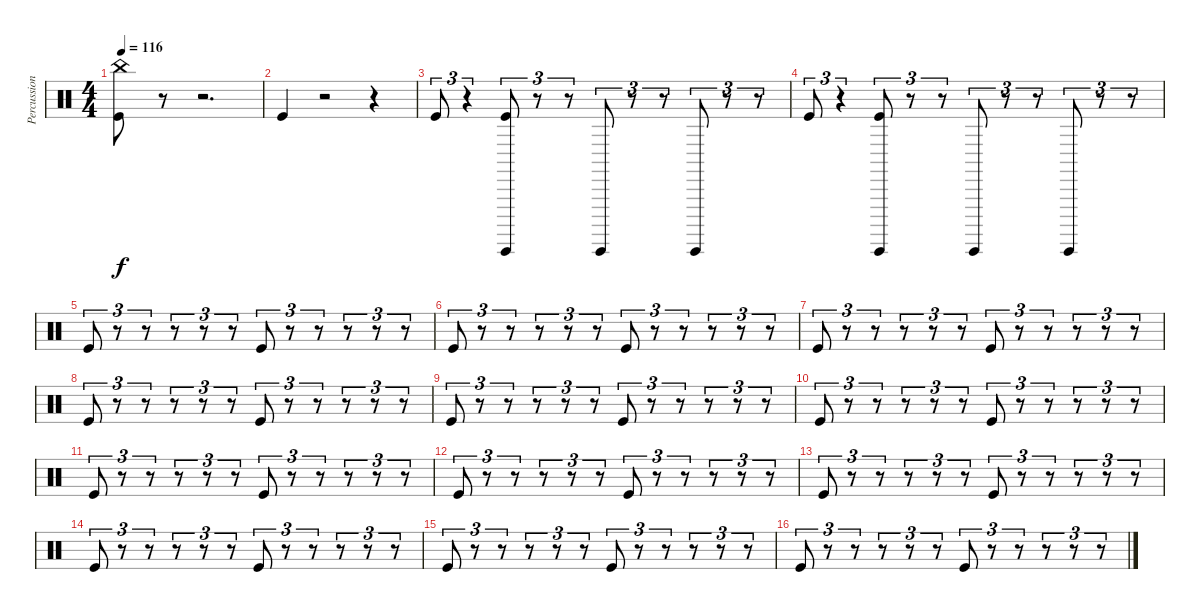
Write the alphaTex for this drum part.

\track ("Percussions" "Percussion") {instrument percussion}
\staff {score}
\articulation defaults
\ts (4 4)
\tempo 116
\clef neutral
\ks c
("China (hit)" "Kick (hit)").8{dy f} r.8 r.2{d} |
"Kick (hit)".4 r.2 r.4 |
"Kick (hit)".8{tu (3 2)} r.4{tu (3 2)} ("Guiro (hit)" "Kick (hit)").8{tu (3 2)} r.8{tu (3 2)} r.8{tu (3 2)} "Guiro (hit)".8{tu (3 2)} r.8{tu (3 2)} r.8{tu (3 2)} "Guiro (hit)".8{tu (3 2)} r.8{tu (3 2)} r.8{tu (3 2)} |
"Kick (hit)".8{tu (3 2)} r.4{tu (3 2)} ("Guiro (hit)" "Kick (hit)").8{tu (3 2)} r.8{tu (3 2)} r.8{tu (3 2)} "Guiro (hit)".8{tu (3 2)} r.8{tu (3 2)} r.8{tu (3 2)} "Guiro (hit)".8{tu (3 2)} r.8{tu (3 2)} r.8{tu (3 2)} |
"Kick (hit)".8{tu (3 2)} r.8{tu (3 2)} r.8{tu (3 2)} r.8{tu (3 2)} r.8{tu (3 2)} r.8{tu (3 2)} "Kick (hit)".8{tu (3 2)} r.8{tu (3 2)} r.8{tu (3 2)} r.8{tu (3 2)} r.8{tu (3 2)} r.8{tu (3 2)} |
"Kick (hit)".8{tu (3 2)} r.8{tu (3 2)} r.8{tu (3 2)} r.8{tu (3 2)} r.8{tu (3 2)} r.8{tu (3 2)} "Kick (hit)".8{tu (3 2)} r.8{tu (3 2)} r.8{tu (3 2)} r.8{tu (3 2)} r.8{tu (3 2)} r.8{tu (3 2)} |
"Kick (hit)".8{tu (3 2)} r.8{tu (3 2)} r.8{tu (3 2)} r.8{tu (3 2)} r.8{tu (3 2)} r.8{tu (3 2)} "Kick (hit)".8{tu (3 2)} r.8{tu (3 2)} r.8{tu (3 2)} r.8{tu (3 2)} r.8{tu (3 2)} r.8{tu (3 2)} |
"Kick (hit)".8{tu (3 2)} r.8{tu (3 2)} r.8{tu (3 2)} r.8{tu (3 2)} r.8{tu (3 2)} r.8{tu (3 2)} "Kick (hit)".8{tu (3 2)} r.8{tu (3 2)} r.8{tu (3 2)} r.8{tu (3 2)} r.8{tu (3 2)} r.8{tu (3 2)} |
"Kick (hit)".8{tu (3 2)} r.8{tu (3 2)} r.8{tu (3 2)} r.8{tu (3 2)} r.8{tu (3 2)} r.8{tu (3 2)} "Kick (hit)".8{tu (3 2)} r.8{tu (3 2)} r.8{tu (3 2)} r.8{tu (3 2)} r.8{tu (3 2)} r.8{tu (3 2)} |
"Kick (hit)".8{tu (3 2)} r.8{tu (3 2)} r.8{tu (3 2)} r.8{tu (3 2)} r.8{tu (3 2)} r.8{tu (3 2)} "Kick (hit)".8{tu (3 2)} r.8{tu (3 2)} r.8{tu (3 2)} r.8{tu (3 2)} r.8{tu (3 2)} r.8{tu (3 2)} |
"Kick (hit)".8{tu (3 2)} r.8{tu (3 2)} r.8{tu (3 2)} r.8{tu (3 2)} r.8{tu (3 2)} r.8{tu (3 2)} "Kick (hit)".8{tu (3 2)} r.8{tu (3 2)} r.8{tu (3 2)} r.8{tu (3 2)} r.8{tu (3 2)} r.8{tu (3 2)} |
"Kick (hit)".8{tu (3 2)} r.8{tu (3 2)} r.8{tu (3 2)} r.8{tu (3 2)} r.8{tu (3 2)} r.8{tu (3 2)} "Kick (hit)".8{tu (3 2)} r.8{tu (3 2)} r.8{tu (3 2)} r.8{tu (3 2)} r.8{tu (3 2)} r.8{tu (3 2)} |
"Kick (hit)".8{tu (3 2)} r.8{tu (3 2)} r.8{tu (3 2)} r.8{tu (3 2)} r.8{tu (3 2)} r.8{tu (3 2)} "Kick (hit)".8{tu (3 2)} r.8{tu (3 2)} r.8{tu (3 2)} r.8{tu (3 2)} r.8{tu (3 2)} r.8{tu (3 2)} |
"Kick (hit)".8{tu (3 2)} r.8{tu (3 2)} r.8{tu (3 2)} r.8{tu (3 2)} r.8{tu (3 2)} r.8{tu (3 2)} "Kick (hit)".8{tu (3 2)} r.8{tu (3 2)} r.8{tu (3 2)} r.8{tu (3 2)} r.8{tu (3 2)} r.8{tu (3 2)} |
"Kick (hit)".8{tu (3 2)} r.8{tu (3 2)} r.8{tu (3 2)} r.8{tu (3 2)} r.8{tu (3 2)} r.8{tu (3 2)} "Kick (hit)".8{tu (3 2)} r.8{tu (3 2)} r.8{tu (3 2)} r.8{tu (3 2)} r.8{tu (3 2)} r.8{tu (3 2)} |
"Kick (hit)".8{tu (3 2)} r.8{tu (3 2)} r.8{tu (3 2)} r.8{tu (3 2)} r.8{tu (3 2)} r.8{tu (3 2)} "Kick (hit)".8{tu (3 2)} r.8{tu (3 2)} r.8{tu (3 2)} r.8{tu (3 2)} r.8{tu (3 2)} r.8{tu (3 2)}
